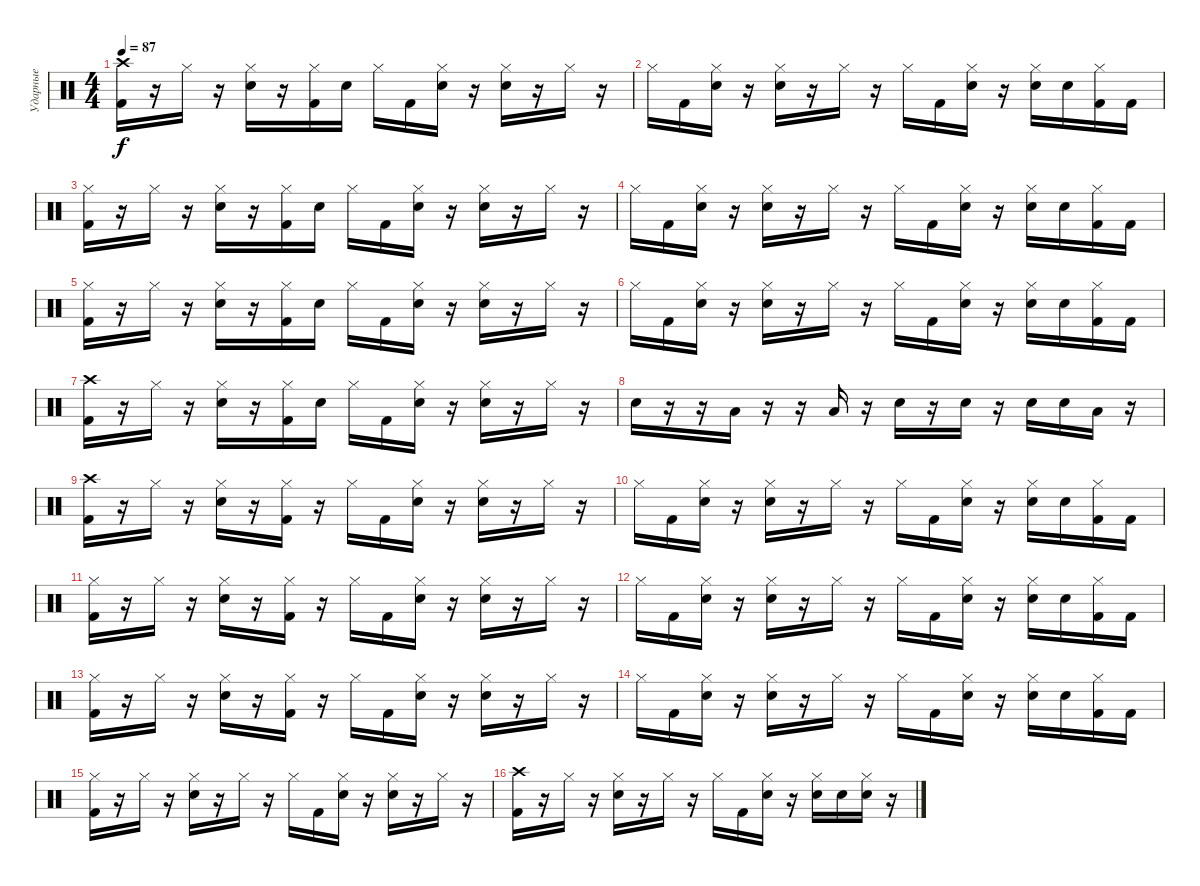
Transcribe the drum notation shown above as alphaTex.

\track ("Ударные" "Ударные") {instrument percussion}
\staff {score}
\articulation defaults
\ts (4 4)
\tempo 87
\clef neutral
\ks c
("Crash high (hit)" "Kick (hit) 2").16{dy f} r.16 "Hi-Hat (closed)".16 r.16 ("Hi-Hat (closed)" "Electric Snare (hit)").16 r.16 ("Hi-Hat (closed)" "Kick (hit) 2").16 "Electric Snare (hit)".16 "Hi-Hat (closed)".16 "Kick (hit) 2".16 ("Hi-Hat (closed)" "Electric Snare (hit)").16 r.16 ("Hi-Hat (closed)" "Electric Snare (hit)").16 r.16 "Hi-Hat (closed)".16 r.16 |
"Hi-Hat (closed)".16 "Kick (hit) 2".16 ("Hi-Hat (closed)" "Electric Snare (hit)").16 r.16 ("Hi-Hat (closed)" "Electric Snare (hit)").16 r.16 "Hi-Hat (closed)".16 r.16 "Hi-Hat (closed)".16 "Kick (hit) 2".16 ("Hi-Hat (closed)" "Electric Snare (hit)").16 r.16 ("Hi-Hat (closed)" "Electric Snare (hit)").16 "Electric Snare (hit)".16 ("Hi-Hat (closed)" "Kick (hit) 2").16 "Kick (hit) 2".16 |
("Hi-Hat (closed)" "Kick (hit) 2").16 r.16 "Hi-Hat (closed)".16 r.16 ("Hi-Hat (closed)" "Electric Snare (hit)").16 r.16 ("Hi-Hat (closed)" "Kick (hit) 2").16 "Electric Snare (hit)".16 "Hi-Hat (closed)".16 "Kick (hit) 2".16 ("Hi-Hat (closed)" "Electric Snare (hit)").16 r.16 ("Hi-Hat (closed)" "Electric Snare (hit)").16 r.16 "Hi-Hat (closed)".16 r.16 |
"Hi-Hat (closed)".16 "Kick (hit) 2".16 ("Hi-Hat (closed)" "Electric Snare (hit)").16 r.16 ("Hi-Hat (closed)" "Electric Snare (hit)").16 r.16 "Hi-Hat (closed)".16 r.16 "Hi-Hat (closed)".16 "Kick (hit) 2".16 ("Hi-Hat (closed)" "Electric Snare (hit)").16 r.16 ("Hi-Hat (closed)" "Electric Snare (hit)").16 "Electric Snare (hit)".16 ("Hi-Hat (closed)" "Kick (hit) 2").16 "Kick (hit) 2".16 |
("Hi-Hat (closed)" "Kick (hit) 2").16 r.16 "Hi-Hat (closed)".16 r.16 ("Hi-Hat (closed)" "Electric Snare (hit)").16 r.16 ("Hi-Hat (closed)" "Kick (hit) 2").16 "Electric Snare (hit)".16 "Hi-Hat (closed)".16 "Kick (hit) 2".16 ("Hi-Hat (closed)" "Electric Snare (hit)").16 r.16 ("Hi-Hat (closed)" "Electric Snare (hit)").16 r.16 "Hi-Hat (closed)".16 r.16 |
"Hi-Hat (closed)".16 "Kick (hit) 2".16 ("Hi-Hat (closed)" "Electric Snare (hit)").16 r.16 ("Hi-Hat (closed)" "Electric Snare (hit)").16 r.16 "Hi-Hat (closed)".16 r.16 "Hi-Hat (closed)".16 "Kick (hit) 2".16 ("Hi-Hat (closed)" "Electric Snare (hit)").16 r.16 ("Hi-Hat (closed)" "Electric Snare (hit)").16 "Electric Snare (hit)".16 ("Hi-Hat (closed)" "Kick (hit) 2").16 "Kick (hit) 2".16 |
("Crash high (hit)" "Kick (hit) 2").16 r.16 "Hi-Hat (closed)".16 r.16 ("Hi-Hat (closed)" "Electric Snare (hit)").16 r.16 ("Hi-Hat (closed)" "Kick (hit) 2").16 "Electric Snare (hit)".16 "Hi-Hat (closed)".16 "Kick (hit) 2".16 ("Hi-Hat (closed)" "Electric Snare (hit)").16 r.16 ("Hi-Hat (closed)" "Electric Snare (hit)").16 r.16 "Hi-Hat (closed)".16 r.16 |
"Electric Snare (hit)".16 r.16 r.16 "Low Tom (hit)".16 r.16 r.16 "Low Tom (hit)".16 r.16 "Electric Snare (hit)".16 r.16 "Electric Snare (hit)".16 r.16 "Electric Snare (hit)".16 "Electric Snare (hit)".16 "Low Tom (hit)".16 r.16 |
("Crash high (hit)" "Kick (hit) 2").16 r.16 "Hi-Hat (closed)".16 r.16 ("Hi-Hat (closed)" "Electric Snare (hit)").16 r.16 ("Hi-Hat (closed)" "Kick (hit) 2").16 r.16 "Hi-Hat (closed)".16 "Kick (hit) 2".16 ("Hi-Hat (closed)" "Electric Snare (hit)").16 r.16 ("Hi-Hat (closed)" "Electric Snare (hit)").16 r.16 "Hi-Hat (closed)".16 r.16 |
"Hi-Hat (closed)".16 "Kick (hit) 2".16 ("Hi-Hat (closed)" "Electric Snare (hit)").16 r.16 ("Hi-Hat (closed)" "Electric Snare (hit)").16 r.16 "Hi-Hat (closed)".16 r.16 "Hi-Hat (closed)".16 "Kick (hit) 2".16 ("Hi-Hat (closed)" "Electric Snare (hit)").16 r.16 ("Hi-Hat (closed)" "Electric Snare (hit)").16 "Electric Snare (hit)".16 ("Hi-Hat (closed)" "Kick (hit) 2").16 "Kick (hit) 2".16 |
("Hi-Hat (closed)" "Kick (hit) 2").16 r.16 "Hi-Hat (closed)".16 r.16 ("Hi-Hat (closed)" "Electric Snare (hit)").16 r.16 ("Hi-Hat (closed)" "Kick (hit) 2").16 r.16 "Hi-Hat (closed)".16 "Kick (hit) 2".16 ("Hi-Hat (closed)" "Electric Snare (hit)").16 r.16 ("Hi-Hat (closed)" "Electric Snare (hit)").16 r.16 "Hi-Hat (closed)".16 r.16 |
"Hi-Hat (closed)".16 "Kick (hit) 2".16 ("Hi-Hat (closed)" "Electric Snare (hit)").16 r.16 ("Hi-Hat (closed)" "Electric Snare (hit)").16 r.16 "Hi-Hat (closed)".16 r.16 "Hi-Hat (closed)".16 "Kick (hit) 2".16 ("Hi-Hat (closed)" "Electric Snare (hit)").16 r.16 ("Hi-Hat (closed)" "Electric Snare (hit)").16 "Electric Snare (hit)".16 ("Hi-Hat (closed)" "Kick (hit) 2").16 "Kick (hit) 2".16 |
("Hi-Hat (closed)" "Kick (hit) 2").16 r.16 "Hi-Hat (closed)".16 r.16 ("Hi-Hat (closed)" "Electric Snare (hit)").16 r.16 ("Hi-Hat (closed)" "Kick (hit) 2").16 r.16 "Hi-Hat (closed)".16 "Kick (hit) 2".16 ("Hi-Hat (closed)" "Electric Snare (hit)").16 r.16 ("Hi-Hat (closed)" "Electric Snare (hit)").16 r.16 "Hi-Hat (closed)".16 r.16 |
"Hi-Hat (closed)".16 "Kick (hit) 2".16 ("Hi-Hat (closed)" "Electric Snare (hit)").16 r.16 ("Hi-Hat (closed)" "Electric Snare (hit)").16 r.16 "Hi-Hat (closed)".16 r.16 "Hi-Hat (closed)".16 "Kick (hit) 2".16 ("Hi-Hat (closed)" "Electric Snare (hit)").16 r.16 ("Hi-Hat (closed)" "Electric Snare (hit)").16 "Electric Snare (hit)".16 ("Hi-Hat (closed)" "Kick (hit) 2").16 "Kick (hit) 2".16 |
("Hi-Hat (closed)" "Kick (hit) 2").16 r.16 "Hi-Hat (closed)".16 r.16 ("Hi-Hat (closed)" "Electric Snare (hit)").16 r.16 "Hi-Hat (closed)".16 r.16 "Hi-Hat (closed)".16 "Kick (hit) 2".16 ("Hi-Hat (closed)" "Electric Snare (hit)").16 r.16 ("Hi-Hat (closed)" "Electric Snare (hit)").16 r.16 "Hi-Hat (closed)".16 r.16 |
("Crash high (hit)" "Kick (hit) 2").16 r.16 "Hi-Hat (closed)".16 r.16 ("Hi-Hat (closed)" "Electric Snare (hit)").16 r.16 "Hi-Hat (closed)".16 r.16 "Hi-Hat (closed)".16 "Kick (hit) 2".16 ("Hi-Hat (closed)" "Electric Snare (hit)").16 r.16 ("Hi-Hat (closed)" "Electric Snare (hit)").16 "Electric Snare (hit)".16 ("Hi-Hat (closed)" "Electric Snare (hit)").16 r.16
